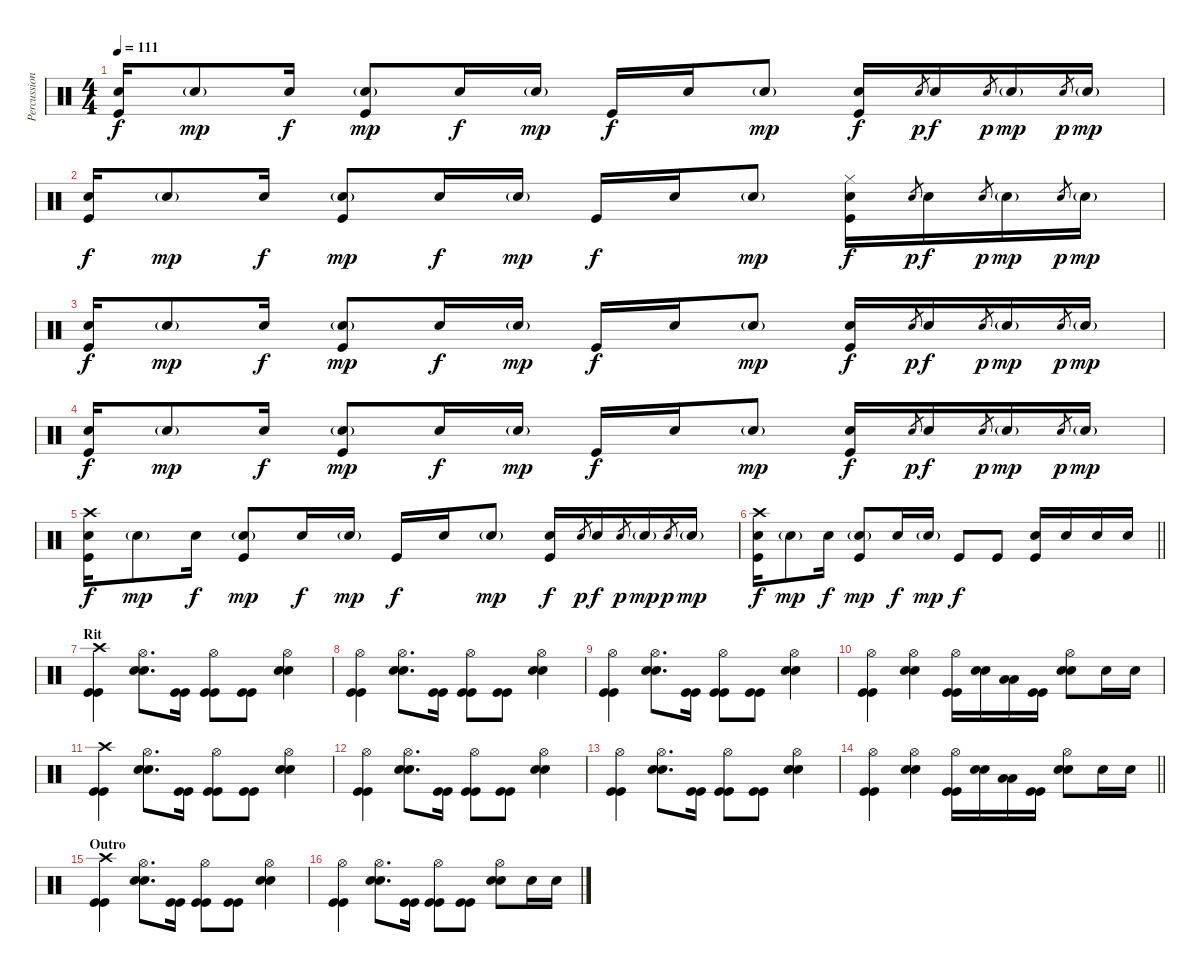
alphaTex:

\track ("Percussioni" "Percussion") {instrument percussion}
\staff {score}
\articulation defaults
\ts (4 4)
\tempo 111
\clef neutral
\ks c
("Snare (hit) 2" "Kick (hit)").16{dy f} "Snare (hit) 2"{g}.8{dy mp} "Snare (hit) 2".16{dy f} ("Snare (hit) 2"{g} "Kick (hit)").8{dy mp} "Snare (hit) 2".16{dy f} "Snare (hit) 2"{g}.16{dy mp} "Kick (hit)".16{dy f} "Snare (hit) 2".16 "Snare (hit) 2"{g}.8{dy mp} ("Snare (hit) 2" "Kick (hit)").16{dy f} "Snare (hit) 2".8{gr dy p} "Snare (hit) 2".16{dy f} "Snare (hit) 2".8{gr dy p} "Snare (hit) 2"{g}.16{dy mp} "Snare (hit) 2".8{gr dy p} "Snare (hit) 2"{g}.16{dy mp} |
("Snare (hit) 2" "Kick (hit)").16{dy f} "Snare (hit) 2"{g}.8{dy mp} "Snare (hit) 2".16{dy f} ("Snare (hit) 2"{g} "Kick (hit)").8{dy mp} "Snare (hit) 2".16{dy f} "Snare (hit) 2"{g}.16{dy mp} "Kick (hit)".16{dy f} "Snare (hit) 2".16 "Snare (hit) 2"{g}.8{dy mp} ("Hi-Hat (closed)" "Snare (hit) 2" "Kick (hit)").16{dy f} "Snare (hit) 2".8{gr dy p} "Snare (hit) 2".16{dy f} "Snare (hit) 2".8{gr dy p} "Snare (hit) 2"{g}.16{dy mp} "Snare (hit) 2".8{gr dy p} "Snare (hit) 2"{g}.16{dy mp} |
("Snare (hit) 2" "Kick (hit)").16{dy f} "Snare (hit) 2"{g}.8{dy mp} "Snare (hit) 2".16{dy f} ("Snare (hit) 2"{g} "Kick (hit)").8{dy mp} "Snare (hit) 2".16{dy f} "Snare (hit) 2"{g}.16{dy mp} "Kick (hit)".16{dy f} "Snare (hit) 2".16 "Snare (hit) 2"{g}.8{dy mp} ("Snare (hit) 2" "Kick (hit)").16{dy f} "Snare (hit) 2".8{gr dy p} "Snare (hit) 2".16{dy f} "Snare (hit) 2".8{gr dy p} "Snare (hit) 2"{g}.16{dy mp} "Snare (hit) 2".8{gr dy p} "Snare (hit) 2"{g}.16{dy mp} |
("Snare (hit) 2" "Kick (hit)").16{dy f} "Snare (hit) 2"{g}.8{dy mp} "Snare (hit) 2".16{dy f} ("Snare (hit) 2"{g} "Kick (hit)").8{dy mp} "Snare (hit) 2".16{dy f} "Snare (hit) 2"{g}.16{dy mp} "Kick (hit)".16{dy f} "Snare (hit) 2".16 "Snare (hit) 2"{g}.8{dy mp} ("Snare (hit) 2" "Kick (hit)").16{dy f} "Snare (hit) 2".8{gr dy p} "Snare (hit) 2".16{dy f} "Snare (hit) 2".8{gr dy p} "Snare (hit) 2"{g}.16{dy mp} "Snare (hit) 2".8{gr dy p} "Snare (hit) 2"{g}.16{dy mp} |
("Crash high (hit)" "Snare (hit) 2" "Kick (hit)").16{dy f} "Snare (hit) 2"{g}.8{dy mp} "Snare (hit) 2".16{dy f} ("Snare (hit) 2"{g} "Kick (hit)").8{dy mp} "Snare (hit) 2".16{dy f} "Snare (hit) 2"{g}.16{dy mp} "Kick (hit)".16{dy f} "Snare (hit) 2".16 "Snare (hit) 2"{g}.8{dy mp} ("Snare (hit) 2" "Kick (hit)").16{dy f} "Snare (hit) 2".8{gr dy p} "Snare (hit) 2".16{dy f} "Snare (hit) 2".8{gr dy p} "Snare (hit) 2"{g}.16{dy mp} "Snare (hit) 2".8{gr dy p} "Snare (hit) 2"{g}.16{dy mp} |
\barLineRight lightlight
("Crash high (hit)" "Snare (hit) 2" "Kick (hit)").16{dy f} "Snare (hit) 2"{g}.8{dy mp} "Snare (hit) 2".16{dy f} ("Snare (hit) 2"{g} "Kick (hit)").8{dy mp} "Snare (hit) 2".16{dy f} "Snare (hit) 2"{g}.16{dy mp} "Kick (hit)".8{dy f} "Kick (hit)".8 ("Snare (hit) 2" "Kick (hit)").16 "Snare (hit) 2".16 "Snare (hit) 2".16 "Snare (hit) 2".16 |
\section ("" "Rit")
("Crash high (hit)" "Kick (hit)" "Kick (hit)").4 ("Hi-Hat (open)" "Snare (hit) 2" "Snare (hit) 2").8{d} ("Kick (hit)" "Kick (hit)").16 ("Hi-Hat (open)" "Kick (hit)" "Kick (hit)").8 ("Kick (hit)" "Kick (hit)").8 ("Hi-Hat (open)" "Snare (hit) 2" "Snare (hit) 2").4 |
("Hi-Hat (open)" "Kick (hit)" "Kick (hit)").4 ("Hi-Hat (open)" "Snare (hit) 2" "Snare (hit) 2").8{d} ("Kick (hit)" "Kick (hit)").16 ("Hi-Hat (open)" "Kick (hit)" "Kick (hit)").8 ("Kick (hit)" "Kick (hit)").8 ("Hi-Hat (open)" "Snare (hit) 2" "Snare (hit) 2").4 |
("Hi-Hat (open)" "Kick (hit)" "Kick (hit)").4 ("Hi-Hat (open)" "Snare (hit) 2" "Snare (hit) 2").8{d} ("Kick (hit)" "Kick (hit)").16 ("Hi-Hat (open)" "Kick (hit)" "Kick (hit)").8 ("Kick (hit)" "Kick (hit)").8 ("Hi-Hat (open)" "Snare (hit) 2" "Snare (hit) 2").4 |
("Hi-Hat (open)" "Kick (hit)" "Kick (hit)").4 ("Hi-Hat (open)" "Snare (hit) 2" "Snare (hit) 2").4 ("Hi-Hat (open)" "Kick (hit)" "Kick (hit)").16 ("Snare (hit) 2" "Snare (hit) 2").16 ("Low Tom (hit)" "Low Tom (hit)").16 ("Kick (hit)" "Kick (hit)").16 ("Hi-Hat (open)" "Snare (hit) 2" "Snare (hit) 2").8 "Snare (hit) 2".16 "Snare (hit) 2".16 |
("Crash high (hit)" "Kick (hit)" "Kick (hit)").4 ("Hi-Hat (open)" "Snare (hit) 2" "Snare (hit) 2").8{d} ("Kick (hit)" "Kick (hit)").16 ("Hi-Hat (open)" "Kick (hit)" "Kick (hit)").8 ("Kick (hit)" "Kick (hit)").8 ("Hi-Hat (open)" "Snare (hit) 2" "Snare (hit) 2").4 |
("Hi-Hat (open)" "Kick (hit)" "Kick (hit)").4 ("Hi-Hat (open)" "Snare (hit) 2" "Snare (hit) 2").8{d} ("Kick (hit)" "Kick (hit)").16 ("Hi-Hat (open)" "Kick (hit)" "Kick (hit)").8 ("Kick (hit)" "Kick (hit)").8 ("Hi-Hat (open)" "Snare (hit) 2" "Snare (hit) 2").4 |
("Hi-Hat (open)" "Kick (hit)" "Kick (hit)").4 ("Hi-Hat (open)" "Snare (hit) 2" "Snare (hit) 2").8{d} ("Kick (hit)" "Kick (hit)").16 ("Hi-Hat (open)" "Kick (hit)" "Kick (hit)").8 ("Kick (hit)" "Kick (hit)").8 ("Hi-Hat (open)" "Snare (hit) 2" "Snare (hit) 2").4 |
\barLineRight lightlight
("Hi-Hat (open)" "Kick (hit)" "Kick (hit)").4 ("Hi-Hat (open)" "Snare (hit) 2" "Snare (hit) 2").4 ("Hi-Hat (open)" "Kick (hit)" "Kick (hit)").16 ("Snare (hit) 2" "Snare (hit) 2").16 ("Low Tom (hit)" "Low Tom (hit)").16 ("Kick (hit)" "Kick (hit)").16 ("Hi-Hat (open)" "Snare (hit) 2" "Snare (hit) 2").8 "Snare (hit) 2".16 "Snare (hit) 2".16 |
\section ("" "Outro")
("Crash high (hit)" "Kick (hit)" "Kick (hit)").4 ("Hi-Hat (open)" "Snare (hit) 2" "Snare (hit) 2").8{d} ("Kick (hit)" "Kick (hit)").16 ("Hi-Hat (open)" "Kick (hit)" "Kick (hit)").8 ("Kick (hit)" "Kick (hit)").8 ("Hi-Hat (open)" "Snare (hit) 2" "Snare (hit) 2").4 |
("Hi-Hat (open)" "Kick (hit)" "Kick (hit)").4 ("Hi-Hat (open)" "Snare (hit) 2" "Snare (hit) 2").8{d} ("Kick (hit)" "Kick (hit)").16 ("Hi-Hat (open)" "Kick (hit)" "Kick (hit)").8 ("Kick (hit)" "Kick (hit)").8 ("Hi-Hat (open)" "Snare (hit) 2" "Snare (hit) 2").8 "Snare (hit) 2".16 "Snare (hit) 2".16
